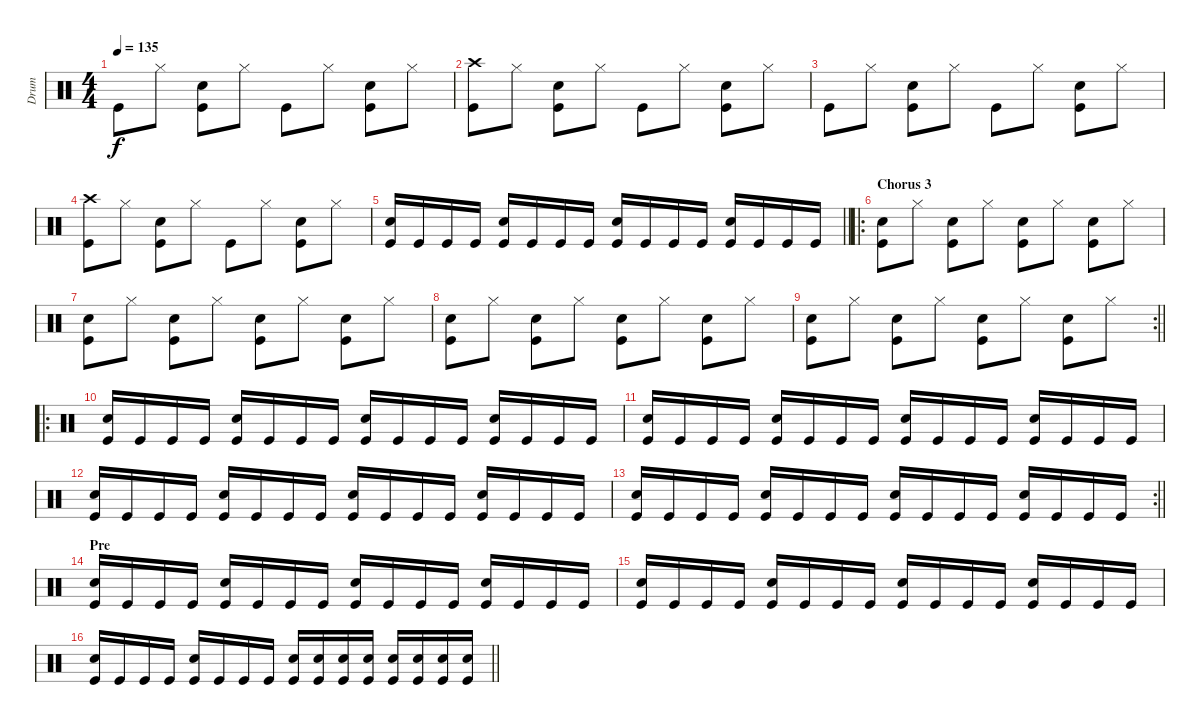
\track ("Drum" "Drum") {instrument percussion}
\staff {score}
\articulation defaults
\ts (4 4)
\tempo 135
\clef neutral
\ks c "Kick (hit)".8{dy f} "Hi-Hat (closed)".8
("Snare (hit) 2" "Kick (hit)").8 "Hi-Hat (closed)".8 "Kick (hit)".8 "Hi-Hat (closed)".8 ("Snare (hit) 2" "Kick (hit)").8 "Hi-Hat (closed)".8 |
("Crash high (hit)" "Kick (hit)").8 "Hi-Hat (closed)".8 ("Snare (hit) 2" "Kick (hit)").8 "Hi-Hat (closed)".8 "Kick (hit)".8 "Hi-Hat (closed)".8 ("Snare (hit) 2" "Kick (hit)").8 "Hi-Hat (closed)".8 |
"Kick (hit)".8 "Hi-Hat (closed)".8 ("Snare (hit) 2" "Kick (hit)").8 "Hi-Hat (closed)".8 "Kick (hit)".8 "Hi-Hat (closed)".8 ("Snare (hit) 2" "Kick (hit)").8 "Hi-Hat (closed)".8 |
("Crash high (hit)" "Kick (hit)").8 "Hi-Hat (closed)".8 ("Snare (hit) 2" "Kick (hit)").8 "Hi-Hat (closed)".8 "Kick (hit)".8 "Hi-Hat (closed)".8 ("Snare (hit) 2" "Kick (hit)").8 "Hi-Hat (closed)".8 |
\barLineRight lightlight
("Snare (hit) 2" "Kick (hit)").16 "Kick (hit)".16 "Kick (hit)".16 "Kick (hit)".16 ("Snare (hit) 2" "Kick (hit)").16 "Kick (hit)".16 "Kick (hit)".16 "Kick (hit)".16 ("Snare (hit) 2" "Kick (hit)").16 "Kick (hit)".16 "Kick (hit)".16 "Kick (hit)".16 ("Snare (hit) 2" "Kick (hit)").16 "Kick (hit)".16 "Kick (hit)".16 "Kick (hit)".16 |
\ro
\section ("" "Chorus 3")
("Snare (hit) 2" "Kick (hit)").8 "Hi-Hat (closed)".8 ("Snare (hit) 2" "Kick (hit)").8 "Hi-Hat (closed)".8 ("Snare (hit) 2" "Kick (hit)").8 "Hi-Hat (closed)".8 ("Snare (hit) 2" "Kick (hit)").8 "Hi-Hat (closed)".8 |
("Snare (hit) 2" "Kick (hit)").8 "Hi-Hat (closed)".8 ("Snare (hit) 2" "Kick (hit)").8 "Hi-Hat (closed)".8 ("Snare (hit) 2" "Kick (hit)").8 "Hi-Hat (closed)".8 ("Snare (hit) 2" "Kick (hit)").8 "Hi-Hat (closed)".8 |
("Snare (hit) 2" "Kick (hit)").8 "Hi-Hat (closed)".8 ("Snare (hit) 2" "Kick (hit)").8 "Hi-Hat (closed)".8 ("Snare (hit) 2" "Kick (hit)").8 "Hi-Hat (closed)".8 ("Snare (hit) 2" "Kick (hit)").8 "Hi-Hat (closed)".8 |
\rc 2
\barLineRight lightlight
("Snare (hit) 2" "Kick (hit)").8 "Hi-Hat (closed)".8 ("Snare (hit) 2" "Kick (hit)").8 "Hi-Hat (closed)".8 ("Snare (hit) 2" "Kick (hit)").8 "Hi-Hat (closed)".8 ("Snare (hit) 2" "Kick (hit)").8 "Hi-Hat (closed)".8 |
\ro
("Snare (hit) 2" "Kick (hit)").16 "Kick (hit)".16 "Kick (hit)".16 "Kick (hit)".16 ("Snare (hit) 2" "Kick (hit)").16 "Kick (hit)".16 "Kick (hit)".16 "Kick (hit)".16 ("Snare (hit) 2" "Kick (hit)").16 "Kick (hit)".16 "Kick (hit)".16 "Kick (hit)".16 ("Snare (hit) 2" "Kick (hit)").16 "Kick (hit)".16 "Kick (hit)".16 "Kick (hit)".16 |
("Snare (hit) 2" "Kick (hit)").16 "Kick (hit)".16 "Kick (hit)".16 "Kick (hit)".16 ("Snare (hit) 2" "Kick (hit)").16 "Kick (hit)".16 "Kick (hit)".16 "Kick (hit)".16 ("Snare (hit) 2" "Kick (hit)").16 "Kick (hit)".16 "Kick (hit)".16 "Kick (hit)".16 ("Snare (hit) 2" "Kick (hit)").16 "Kick (hit)".16 "Kick (hit)".16 "Kick (hit)".16 |
("Snare (hit) 2" "Kick (hit)").16 "Kick (hit)".16 "Kick (hit)".16 "Kick (hit)".16 ("Snare (hit) 2" "Kick (hit)").16 "Kick (hit)".16 "Kick (hit)".16 "Kick (hit)".16 ("Snare (hit) 2" "Kick (hit)").16 "Kick (hit)".16 "Kick (hit)".16 "Kick (hit)".16 ("Snare (hit) 2" "Kick (hit)").16 "Kick (hit)".16 "Kick (hit)".16 "Kick (hit)".16 |
\rc 2
\barLineRight lightlight
("Snare (hit) 2" "Kick (hit)").16 "Kick (hit)".16 "Kick (hit)".16 "Kick (hit)".16 ("Snare (hit) 2" "Kick (hit)").16 "Kick (hit)".16 "Kick (hit)".16 "Kick (hit)".16 ("Snare (hit) 2" "Kick (hit)").16 "Kick (hit)".16 "Kick (hit)".16 "Kick (hit)".16 ("Snare (hit) 2" "Kick (hit)").16 "Kick (hit)".16 "Kick (hit)".16 "Kick (hit)".16 |
\section ("" "Pre")
("Snare (hit) 2" "Kick (hit)").16 "Kick (hit)".16 "Kick (hit)".16 "Kick (hit)".16 ("Snare (hit) 2" "Kick (hit)").16 "Kick (hit)".16 "Kick (hit)".16 "Kick (hit)".16 ("Snare (hit) 2" "Kick (hit)").16 "Kick (hit)".16 "Kick (hit)".16 "Kick (hit)".16 ("Snare (hit) 2" "Kick (hit)").16 "Kick (hit)".16 "Kick (hit)".16 "Kick (hit)".16 |
("Snare (hit) 2" "Kick (hit)").16 "Kick (hit)".16 "Kick (hit)".16 "Kick (hit)".16 ("Snare (hit) 2" "Kick (hit)").16 "Kick (hit)".16 "Kick (hit)".16 "Kick (hit)".16 ("Snare (hit) 2" "Kick (hit)").16 "Kick (hit)".16 "Kick (hit)".16 "Kick (hit)".16 ("Snare (hit) 2" "Kick (hit)").16 "Kick (hit)".16 "Kick (hit)".16 "Kick (hit)".16 |
\barLineRight lightlight
("Snare (hit) 2" "Kick (hit)").16 "Kick (hit)".16 "Kick (hit)".16 "Kick (hit)".16 ("Snare (hit) 2" "Kick (hit)").16 "Kick (hit)".16 "Kick (hit)".16 "Kick (hit)".16 ("Snare (hit) 2" "Kick (hit)").16 ("Snare (hit) 2" "Kick (hit)").16 ("Snare (hit) 2" "Kick (hit)").16 ("Snare (hit) 2" "Kick (hit)").16 ("Snare (hit) 2" "Kick (hit)").16 ("Snare (hit) 2" "Kick (hit)").16 ("Snare (hit) 2" "Kick (hit)").16 ("Snare (hit) 2" "Kick (hit)").16
